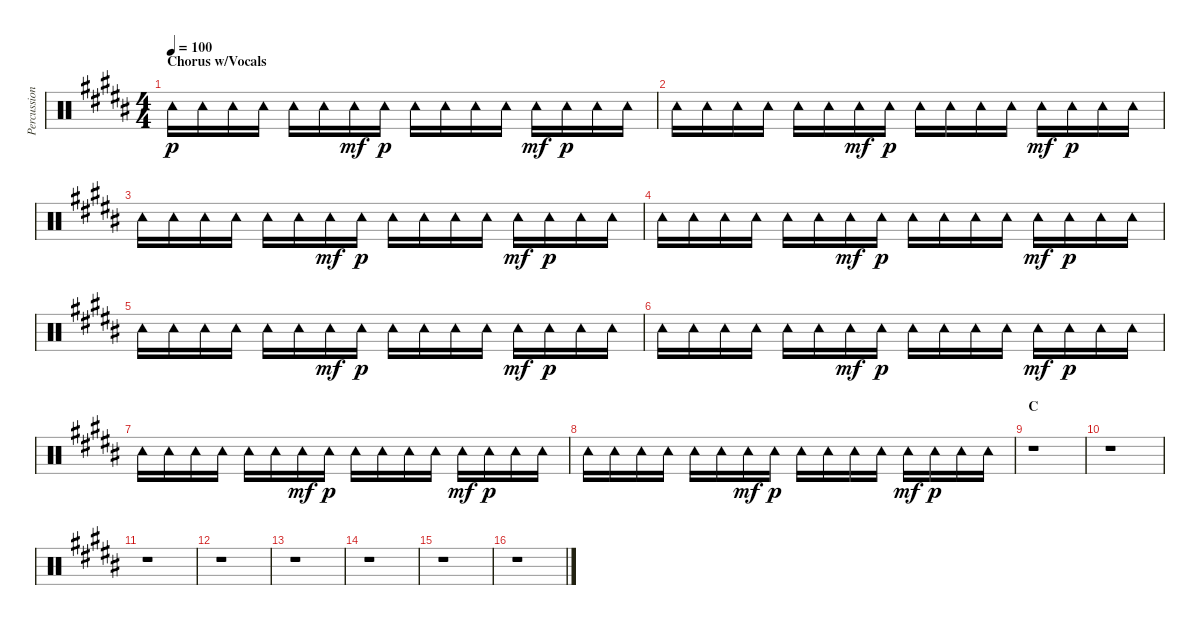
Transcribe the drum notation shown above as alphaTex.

\track ("Percussion" "Percussion") {instrument percussion}
\staff {score}
\articulation defaults
\ts (4 4)
\section ("" "Chorus w/Vocals ")
\tempo 100
\clef neutral
\ks b "Tambourine (hit)".16{dy p} "Tambourine (hit)".16 "Tambourine (hit)".16 "Tambourine (hit)".16 "Tambourine (hit)".16 "Tambourine (hit)".16 "Tambourine (hit)".16{dy mf} "Tambourine (hit)".16{dy p} "Tambourine (hit)".16 "Tambourine (hit)".16 "Tambourine (hit)".16 "Tambourine (hit)".16 "Tambourine (hit)".16{dy mf} "Tambourine (hit)".16{dy p} "Tambourine (hit)".16 "Tambourine (hit)".16
|
"Tambourine (hit)".16 "Tambourine (hit)".16 "Tambourine (hit)".16 "Tambourine (hit)".16 "Tambourine (hit)".16 "Tambourine (hit)".16 "Tambourine (hit)".16{dy mf} "Tambourine (hit)".16{dy p} "Tambourine (hit)".16 "Tambourine (hit)".16 "Tambourine (hit)".16 "Tambourine (hit)".16 "Tambourine (hit)".16{dy mf} "Tambourine (hit)".16{dy p} "Tambourine (hit)".16 "Tambourine (hit)".16 |
"Tambourine (hit)".16 "Tambourine (hit)".16 "Tambourine (hit)".16 "Tambourine (hit)".16 "Tambourine (hit)".16 "Tambourine (hit)".16 "Tambourine (hit)".16{dy mf} "Tambourine (hit)".16{dy p} "Tambourine (hit)".16 "Tambourine (hit)".16 "Tambourine (hit)".16 "Tambourine (hit)".16 "Tambourine (hit)".16{dy mf} "Tambourine (hit)".16{dy p} "Tambourine (hit)".16 "Tambourine (hit)".16 |
"Tambourine (hit)".16 "Tambourine (hit)".16 "Tambourine (hit)".16 "Tambourine (hit)".16 "Tambourine (hit)".16 "Tambourine (hit)".16 "Tambourine (hit)".16{dy mf} "Tambourine (hit)".16{dy p} "Tambourine (hit)".16 "Tambourine (hit)".16 "Tambourine (hit)".16 "Tambourine (hit)".16 "Tambourine (hit)".16{dy mf} "Tambourine (hit)".16{dy p} "Tambourine (hit)".16 "Tambourine (hit)".16 |
"Tambourine (hit)".16 "Tambourine (hit)".16 "Tambourine (hit)".16 "Tambourine (hit)".16 "Tambourine (hit)".16 "Tambourine (hit)".16 "Tambourine (hit)".16{dy mf} "Tambourine (hit)".16{dy p} "Tambourine (hit)".16 "Tambourine (hit)".16 "Tambourine (hit)".16 "Tambourine (hit)".16 "Tambourine (hit)".16{dy mf} "Tambourine (hit)".16{dy p} "Tambourine (hit)".16 "Tambourine (hit)".16 |
"Tambourine (hit)".16 "Tambourine (hit)".16 "Tambourine (hit)".16 "Tambourine (hit)".16 "Tambourine (hit)".16 "Tambourine (hit)".16 "Tambourine (hit)".16{dy mf} "Tambourine (hit)".16{dy p} "Tambourine (hit)".16 "Tambourine (hit)".16 "Tambourine (hit)".16 "Tambourine (hit)".16 "Tambourine (hit)".16{dy mf} "Tambourine (hit)".16{dy p} "Tambourine (hit)".16 "Tambourine (hit)".16 |
"Tambourine (hit)".16 "Tambourine (hit)".16 "Tambourine (hit)".16 "Tambourine (hit)".16 "Tambourine (hit)".16 "Tambourine (hit)".16 "Tambourine (hit)".16{dy mf} "Tambourine (hit)".16{dy p} "Tambourine (hit)".16 "Tambourine (hit)".16 "Tambourine (hit)".16 "Tambourine (hit)".16 "Tambourine (hit)".16{dy mf} "Tambourine (hit)".16{dy p} "Tambourine (hit)".16 "Tambourine (hit)".16 |
"Tambourine (hit)".16 "Tambourine (hit)".16 "Tambourine (hit)".16 "Tambourine (hit)".16 "Tambourine (hit)".16 "Tambourine (hit)".16 "Tambourine (hit)".16{dy mf} "Tambourine (hit)".16{dy p} "Tambourine (hit)".16 "Tambourine (hit)".16 "Tambourine (hit)".16 "Tambourine (hit)".16 "Tambourine (hit)".16{dy mf} "Tambourine (hit)".16{dy p} "Tambourine (hit)".16 "Tambourine (hit)".16 |
\section ("" "C")
r.1 |
r.1 |
r.1 |
r.1 |
r.1 |
r.1 |
r.1 |
r.1
